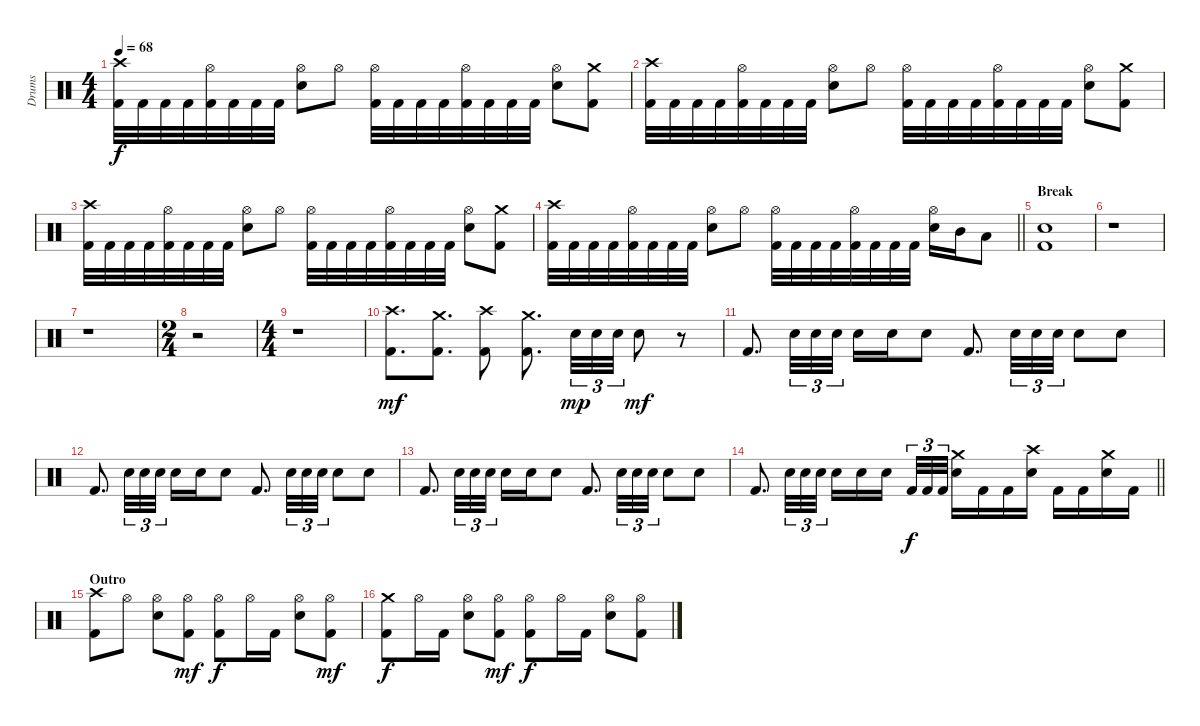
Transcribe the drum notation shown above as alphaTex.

\track ("Drums" "Drums") {instrument percussion}
\staff {score}
\articulation defaults
\ts (4 4)
\tempo 68
\clef neutral
\ks c
("Crash high (hit)" "Kick (hit) 2").32{dy f} "Kick (hit) 2".32 "Kick (hit) 2".32 "Kick (hit) 2".32 ("Hi-Hat (open)" "Kick (hit) 2").32 "Kick (hit) 2".32 "Kick (hit) 2".32 "Kick (hit) 2".32 ("Hi-Hat (open)" "Snare (hit) 2").8 "Hi-Hat (open)".8 ("Hi-Hat (open)" "Kick (hit) 2").32 "Kick (hit) 2".32 "Kick (hit) 2".32 "Kick (hit) 2".32 ("Hi-Hat (open)" "Kick (hit) 2").32 "Kick (hit) 2".32 "Kick (hit) 2".32 "Kick (hit) 2".32 ("Hi-Hat (open)" "Snare (hit) 2").8 ("Crash medium (hit)" "Kick (hit) 2").8 |
("Crash high (hit)" "Kick (hit) 2").32 "Kick (hit) 2".32 "Kick (hit) 2".32 "Kick (hit) 2".32 ("Hi-Hat (open)" "Kick (hit) 2").32 "Kick (hit) 2".32 "Kick (hit) 2".32 "Kick (hit) 2".32 ("Hi-Hat (open)" "Snare (hit) 2").8 "Hi-Hat (open)".8 ("Hi-Hat (open)" "Kick (hit) 2").32 "Kick (hit) 2".32 "Kick (hit) 2".32 "Kick (hit) 2".32 ("Hi-Hat (open)" "Kick (hit) 2").32 "Kick (hit) 2".32 "Kick (hit) 2".32 "Kick (hit) 2".32 ("Hi-Hat (open)" "Snare (hit) 2").8 ("Crash medium (hit)" "Kick (hit) 2").8 |
("Crash high (hit)" "Kick (hit) 2").32 "Kick (hit) 2".32 "Kick (hit) 2".32 "Kick (hit) 2".32 ("Hi-Hat (open)" "Kick (hit) 2").32 "Kick (hit) 2".32 "Kick (hit) 2".32 "Kick (hit) 2".32 ("Hi-Hat (open)" "Snare (hit) 2").8 "Hi-Hat (open)".8 ("Hi-Hat (open)" "Kick (hit) 2").32 "Kick (hit) 2".32 "Kick (hit) 2".32 "Kick (hit) 2".32 ("Hi-Hat (open)" "Kick (hit) 2").32 "Kick (hit) 2".32 "Kick (hit) 2".32 "Kick (hit) 2".32 ("Hi-Hat (open)" "Snare (hit) 2").8 ("Crash medium (hit)" "Kick (hit) 2").8 |
\barLineRight lightlight
("Crash high (hit)" "Kick (hit) 2").32 "Kick (hit) 2".32 "Kick (hit) 2".32 "Kick (hit) 2".32 ("Hi-Hat (open)" "Kick (hit) 2").32 "Kick (hit) 2".32 "Kick (hit) 2".32 "Kick (hit) 2".32 ("Hi-Hat (open)" "Snare (hit) 2").8 "Hi-Hat (open)".8 ("Hi-Hat (open)" "Kick (hit) 2").32 "Kick (hit) 2".32 "Kick (hit) 2".32 "Kick (hit) 2".32 ("Hi-Hat (open)" "Kick (hit) 2").32 "Kick (hit) 2".32 "Kick (hit) 2".32 "Kick (hit) 2".32 ("Hi-Hat (open)" "Snare (hit) 2").16 "Mid Tom (hit)".16 "Low Tom (hit)".8 |
\section ("" "Break")
("Snare (hit) 2" "Kick (hit) 2").1 |
r.1 |
r.1 |
\ts (2 4)
r.2 |
\ts (4 4)
r.1 |
("Crash high (hit)" "Kick (hit) 2").8{d dy mf} ("Crash medium (hit)" "Kick (hit) 2").8{d} ("Crash high (hit)" "Kick (hit) 2").8 ("Crash medium (hit)" "Kick (hit) 2").8{d} "Snare (hit) 2".32{tu (3 2) dy mp} "Snare (hit) 2".32{tu (3 2)} "Snare (hit) 2".32{tu (3 2)} "Snare (hit) 2".8{dy mf} r.8 |
"Kick (hit) 2".8{d} "Snare (hit) 2".32{tu (3 2)} "Snare (hit) 2".32{tu (3 2)} "Snare (hit) 2".32{tu (3 2)} "Snare (hit) 2".16 "Snare (hit) 2".16 "Snare (hit) 2".8 "Kick (hit) 2".8{d} "Snare (hit) 2".32{tu (3 2)} "Snare (hit) 2".32{tu (3 2)} "Snare (hit) 2".32{tu (3 2)} "Snare (hit) 2".8 "Snare (hit) 2".8 |
"Kick (hit) 2".8{d} "Snare (hit) 2".32{tu (3 2)} "Snare (hit) 2".32{tu (3 2)} "Snare (hit) 2".32{tu (3 2)} "Snare (hit) 2".16 "Snare (hit) 2".16 "Snare (hit) 2".8 "Kick (hit) 2".8{d} "Snare (hit) 2".32{tu (3 2)} "Snare (hit) 2".32{tu (3 2)} "Snare (hit) 2".32{tu (3 2)} "Snare (hit) 2".8 "Snare (hit) 2".8 |
"Kick (hit) 2".8{d} "Snare (hit) 2".32{tu (3 2)} "Snare (hit) 2".32{tu (3 2)} "Snare (hit) 2".32{tu (3 2)} "Snare (hit) 2".16 "Snare (hit) 2".16 "Snare (hit) 2".8 "Kick (hit) 2".8{d} "Snare (hit) 2".32{tu (3 2)} "Snare (hit) 2".32{tu (3 2)} "Snare (hit) 2".32{tu (3 2)} "Snare (hit) 2".8 "Snare (hit) 2".8 |
\barLineRight lightlight "Kick (hit) 2".8{d} "Snare (hit) 2".32{tu (3 2)} "Snare (hit) 2".32{tu (3 2)} "Snare (hit) 2".32{tu (3 2)} "Snare (hit) 2".16 "Snare (hit) 2".16 "Snare (hit) 2".16{beam splitsecondary} "Kick (hit) 2".32{tu (3 2) dy f} "Kick (hit) 2".32{tu (3 2)} "Kick (hit) 2".32{tu (3 2)}
("Crash medium (hit)" "Snare (hit) 2").16 "Kick (hit) 2".16 "Kick (hit) 2".16 ("Crash high (hit)" "Snare (hit) 2").16 "Kick (hit) 2".16 "Kick (hit) 2".16 ("Crash medium (hit)" "Snare (hit) 2").16 "Kick (hit) 2".16 |
\section ("" "Outro")
("Crash high (hit)" "Kick (hit) 2").8 "Hi-Hat (open)".8 ("Hi-Hat (open)" "Snare (hit) 2").8 ("Hi-Hat (open)" "Kick (hit) 2").8{dy mf} ("Hi-Hat (open)" "Kick (hit) 2").8{dy f} "Hi-Hat (open)".16 "Kick (hit) 2".16 ("Hi-Hat (open)" "Snare (hit) 2").8 ("Hi-Hat (open)" "Kick (hit) 2").8{dy mf} |
("Crash medium (hit)" "Kick (hit) 2").8{dy f} "Hi-Hat (open)".16 "Kick (hit) 2".16 ("Hi-Hat (open)" "Snare (hit) 2").8 ("Hi-Hat (open)" "Kick (hit) 2").8{dy mf} ("Hi-Hat (open)" "Kick (hit) 2").8{dy f} "Hi-Hat (open)".16 "Kick (hit) 2".16 ("Hi-Hat (open)" "Snare (hit) 2").8 ("Hi-Hat (open)" "Kick (hit) 2").8
